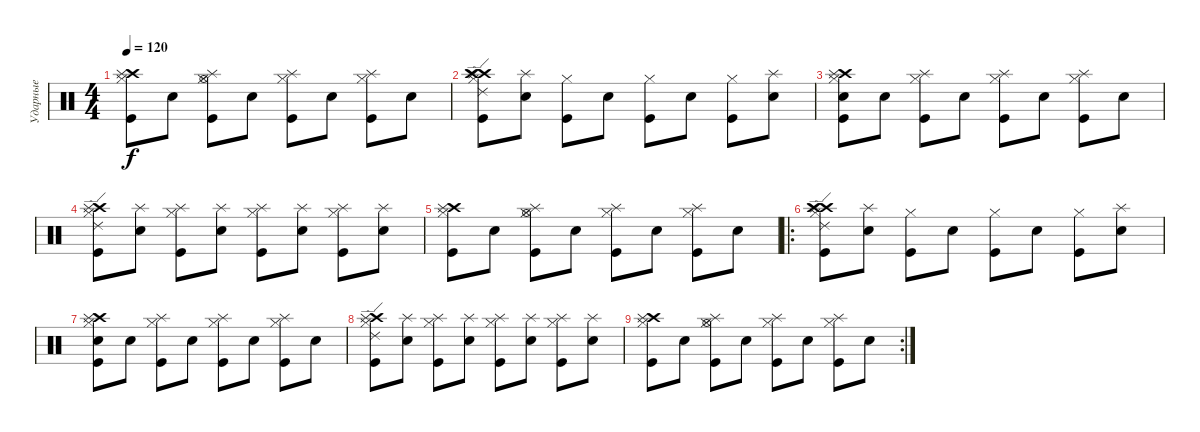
\track ("Ударные" "Ударные") {instrument percussion}
\staff {score}
\articulation defaults
\ts (4 4)
\tempo 120
\clef neutral
\ks c
("Crash high (hit)" "Hi-Hat (closed)" "Splash (hit)" "Kick (hit)").8{dy f} "Electric Snare (hit)".8 ("Hi-Hat (open)" "Hi-Hat (closed)" "Splash (hit)" "Kick (hit)").8 "Electric Snare (hit)".8 ("Hi-Hat (closed)" "Splash (hit)" "Kick (hit)").8 "Electric Snare (hit)".8 ("Hi-Hat (closed)" "Splash (hit)" "Kick (hit)").8 "Electric Snare (hit)".8 |
("Crash high (hit)" "Ride (edge) 2" "Hi-Hat (closed)" "Crash high (hit)" "Splash (hit)" "Kick (hit)").8 ("Electric Snare (hit)" "Splash (hit)").8 ("Hi-Hat (closed)" "Kick (hit)").8 "Electric Snare (hit)".8 ("Hi-Hat (closed)" "Kick (hit)").8 "Electric Snare (hit)".8 ("Hi-Hat (closed)" "Kick (hit)").8 ("Electric Snare (hit)" "Splash (hit)").8 |
("Crash high (hit)" "Hi-Hat (closed)" "Snare (hit)" "Splash (hit)" "Kick (hit)").8 "Electric Snare (hit)".8 ("Hi-Hat (closed)" "Splash (hit)" "Kick (hit)").8 "Electric Snare (hit)".8 ("Hi-Hat (closed)" "Splash (hit)" "Kick (hit)").8 "Electric Snare (hit)".8 ("Hi-Hat (closed)" "Splash (hit)" "Kick (hit)").8 "Electric Snare (hit)".8 |
("Crash high (hit)" "Ride (edge) 2" "Hi-Hat (closed)" "Splash (hit)" "Kick (hit)").8 ("Electric Snare (hit)" "Splash (hit)").8 ("Hi-Hat (closed)" "Splash (hit)" "Kick (hit)").8 ("Electric Snare (hit)" "Splash (hit)").8 ("Hi-Hat (closed)" "Splash (hit)" "Kick (hit)").8 ("Electric Snare (hit)" "Splash (hit)").8 ("Hi-Hat (closed)" "Splash (hit)" "Kick (hit)").8 ("Electric Snare (hit)" "Splash (hit)").8 |
("Crash high (hit)" "Hi-Hat (closed)" "Splash (hit)" "Kick (hit)").8 "Electric Snare (hit)".8 ("Hi-Hat (open)" "Hi-Hat (closed)" "Splash (hit)" "Kick (hit)").8 "Electric Snare (hit)".8 ("Hi-Hat (closed)" "Splash (hit)" "Kick (hit)").8 "Electric Snare (hit)".8 ("Hi-Hat (closed)" "Splash (hit)" "Kick (hit)").8 "Electric Snare (hit)".8 |
\ro
("Crash high (hit)" "Ride (edge) 2" "Hi-Hat (closed)" "Crash high (hit)" "Splash (hit)" "Kick (hit)").8 ("Electric Snare (hit)" "Splash (hit)").8 ("Hi-Hat (closed)" "Kick (hit)").8 "Electric Snare (hit)".8 ("Hi-Hat (closed)" "Kick (hit)").8 "Electric Snare (hit)".8 ("Hi-Hat (closed)" "Kick (hit)").8 ("Electric Snare (hit)" "Splash (hit)").8 |
("Crash high (hit)" "Hi-Hat (closed)" "Snare (hit)" "Splash (hit)" "Kick (hit)").8 "Electric Snare (hit)".8 ("Hi-Hat (closed)" "Splash (hit)" "Kick (hit)").8 "Electric Snare (hit)".8 ("Hi-Hat (closed)" "Splash (hit)" "Kick (hit)").8 "Electric Snare (hit)".8 ("Hi-Hat (closed)" "Splash (hit)" "Kick (hit)").8 "Electric Snare (hit)".8 |
("Crash high (hit)" "Ride (edge) 2" "Hi-Hat (closed)" "Splash (hit)" "Kick (hit)").8 ("Electric Snare (hit)" "Splash (hit)").8 ("Hi-Hat (closed)" "Splash (hit)" "Kick (hit)").8 ("Electric Snare (hit)" "Splash (hit)").8 ("Hi-Hat (closed)" "Splash (hit)" "Kick (hit)").8 ("Electric Snare (hit)" "Splash (hit)").8 ("Hi-Hat (closed)" "Splash (hit)" "Kick (hit)").8 ("Electric Snare (hit)" "Splash (hit)").8 |
\rc 2
("Crash high (hit)" "Hi-Hat (closed)" "Splash (hit)" "Kick (hit)").8 "Electric Snare (hit)".8 ("Hi-Hat (open)" "Hi-Hat (closed)" "Splash (hit)" "Kick (hit)").8 "Electric Snare (hit)".8 ("Hi-Hat (closed)" "Splash (hit)" "Kick (hit)").8 "Electric Snare (hit)".8 ("Hi-Hat (closed)" "Splash (hit)" "Kick (hit)").8 "Electric Snare (hit)".8
